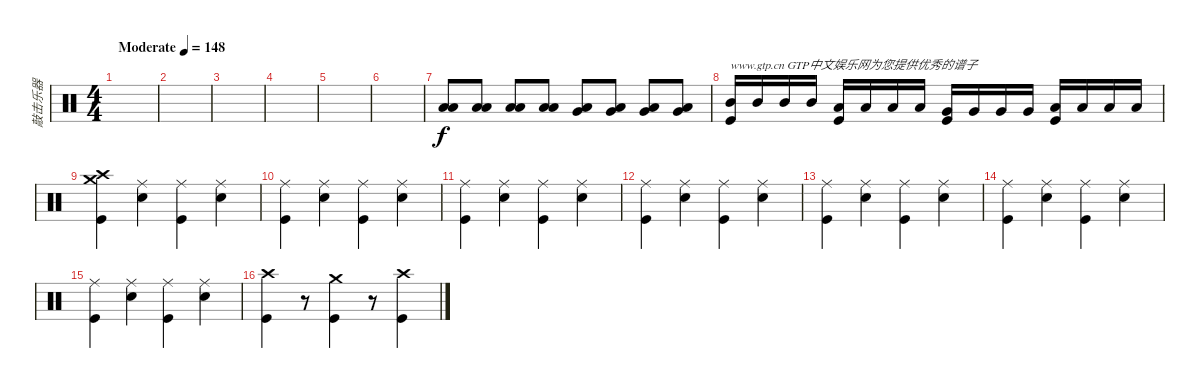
\track ("敲击乐器" "敲击乐器") {instrument percussion}
\staff {score}
\articulation defaults
\ts (4 4)
\tempo (148 "Moderate")
\clef neutral
\ks c
|
|
|
|
|
|
("Low Tom (hit)" "Low Floor Tom (hit)").8 ("Low Tom (hit)" "Low Floor Tom (hit)").8 ("Low Tom (hit)" "Low Floor Tom (hit)").8 ("Low Tom (hit)" "Low Floor Tom (hit)").8 ("Very Low Tom (hit)" "Low Floor Tom (hit)").8 ("Very Low Tom (hit)" "Low Floor Tom (hit)").8 ("Very Low Tom (hit)" "Low Floor Tom (hit)").8 ("Very Low Tom (hit)" "Low Floor Tom (hit)").8 |
("Mid Tom (hit)" "Kick (hit)").16{txt "www.gtp.cn GTP中文娱乐网为您提供优秀的谱子"} "Mid Tom (hit)".16 "Mid Tom (hit)".16 "Mid Tom (hit)".16 ("Kick (hit)" "Low Tom (hit)").16 "Low Tom (hit)".16 "Low Tom (hit)".16 "Low Tom (hit)".16 ("Very Low Tom (hit)" "Kick (hit)").16 "Very Low Tom (hit)".16 "Very Low Tom (hit)".16 "Very Low Tom (hit)".16 ("Low Floor Tom (hit)" "Kick (hit)").16 "Low Floor Tom (hit)".16 "Low Floor Tom (hit)".16 "Low Floor Tom (hit)".16 |
("Crash high (hit)" "Kick (hit)" "Crash medium (hit)").4 ("Ride (middle)" "Snare (hit) 2").4 ("Ride (middle)" "Kick (hit)").4 ("Snare (hit) 2" "Ride (middle)").4 |
("Ride (middle)" "Kick (hit)").4 ("Ride (middle)" "Snare (hit) 2").4 ("Ride (middle)" "Kick (hit)").4 ("Snare (hit) 2" "Ride (middle)").4 |
("Ride (middle)" "Kick (hit)").4 ("Ride (middle)" "Snare (hit) 2").4 ("Ride (middle)" "Kick (hit)").4 ("Snare (hit) 2" "Ride (middle)").4 |
("Ride (middle)" "Kick (hit)").4 ("Ride (middle)" "Snare (hit) 2").4 ("Ride (middle)" "Kick (hit)").4 ("Snare (hit) 2" "Ride (middle)").4 |
("Ride (middle)" "Kick (hit)").4 ("Ride (middle)" "Snare (hit) 2").4 ("Ride (middle)" "Kick (hit)").4 ("Snare (hit) 2" "Ride (middle)").4 |
("Ride (middle)" "Kick (hit)").4 ("Ride (middle)" "Snare (hit) 2").4 ("Ride (middle)" "Kick (hit)").4 ("Snare (hit) 2" "Ride (middle)").4 |
("Ride (middle)" "Kick (hit)").4 ("Ride (middle)" "Snare (hit) 2").4 ("Ride (middle)" "Kick (hit)").4 ("Snare (hit) 2" "Ride (middle)").4 |
("Crash high (hit)" "Kick (hit)").4 r.8 ("Crash medium (hit)" "Kick (hit)").4 r.8 ("Crash high (hit)" "Kick (hit)").4
